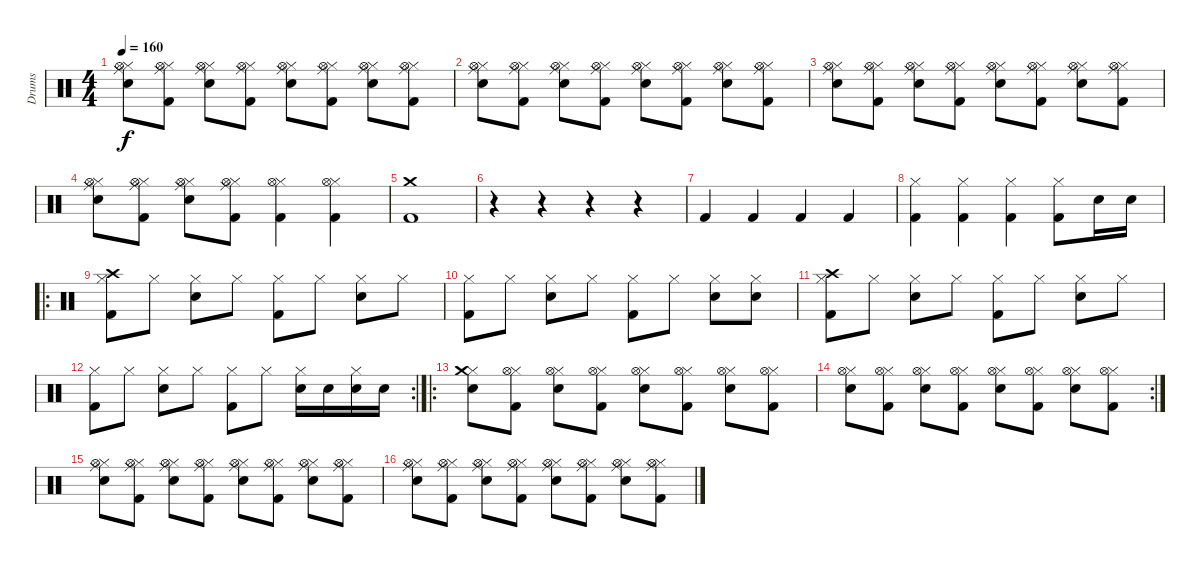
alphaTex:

\track ("Drums" "Drums") {instrument percussion}
\staff {score}
\articulation defaults
\ts (4 4)
\tempo 160
\clef neutral
\ks c
("Hi-Hat (closed)" "Electric Snare (hit)" "Hi-Hat (open)" "Ride (middle)").8{dy f} ("Hi-Hat (closed)" "Kick (hit) 2" "Hi-Hat (open)" "Ride (middle)").8 ("Hi-Hat (closed)" "Electric Snare (hit)" "Hi-Hat (open)" "Ride (middle)").8 ("Hi-Hat (closed)" "Kick (hit) 2" "Hi-Hat (open)" "Ride (middle)").8 ("Hi-Hat (closed)" "Electric Snare (hit)" "Hi-Hat (open)" "Ride (middle)").8 ("Hi-Hat (closed)" "Kick (hit) 2" "Hi-Hat (open)" "Ride (middle)").8 ("Hi-Hat (closed)" "Electric Snare (hit)" "Hi-Hat (open)" "Ride (middle)").8 ("Hi-Hat (closed)" "Kick (hit) 2" "Hi-Hat (open)" "Ride (middle)").8 |
("Hi-Hat (closed)" "Electric Snare (hit)" "Hi-Hat (open)" "Ride (middle)").8 ("Hi-Hat (closed)" "Kick (hit) 2" "Hi-Hat (open)" "Ride (middle)").8 ("Hi-Hat (closed)" "Electric Snare (hit)" "Hi-Hat (open)" "Ride (middle)").8 ("Hi-Hat (closed)" "Kick (hit) 2" "Hi-Hat (open)" "Ride (middle)").8 ("Hi-Hat (closed)" "Electric Snare (hit)" "Hi-Hat (open)" "Ride (middle)").8 ("Hi-Hat (closed)" "Kick (hit) 2" "Hi-Hat (open)" "Ride (middle)").8 ("Hi-Hat (closed)" "Electric Snare (hit)" "Hi-Hat (open)" "Ride (middle)").8 ("Hi-Hat (closed)" "Kick (hit) 2" "Hi-Hat (open)" "Ride (middle)").8 |
("Hi-Hat (closed)" "Electric Snare (hit)" "Hi-Hat (open)" "Ride (middle)").8 ("Hi-Hat (closed)" "Kick (hit) 2" "Hi-Hat (open)" "Ride (middle)").8 ("Hi-Hat (closed)" "Electric Snare (hit)" "Hi-Hat (open)" "Ride (middle)").8 ("Hi-Hat (closed)" "Kick (hit) 2" "Hi-Hat (open)" "Ride (middle)").8 ("Hi-Hat (closed)" "Electric Snare (hit)" "Hi-Hat (open)" "Ride (middle)").8 ("Hi-Hat (closed)" "Kick (hit) 2" "Hi-Hat (open)" "Ride (middle)").8 ("Hi-Hat (closed)" "Electric Snare (hit)" "Hi-Hat (open)" "Ride (middle)").8 ("Hi-Hat (closed)" "Kick (hit) 2" "Hi-Hat (open)" "Ride (middle)").8 |
("Hi-Hat (closed)" "Electric Snare (hit)" "Hi-Hat (open)" "Ride (middle)").8 ("Hi-Hat (closed)" "Kick (hit) 2" "Hi-Hat (open)" "Ride (middle)").8 ("Hi-Hat (closed)" "Electric Snare (hit)" "Hi-Hat (open)" "Ride (middle)").8 ("Hi-Hat (closed)" "Kick (hit) 2" "Hi-Hat (open)" "Ride (middle)").8 ("Hi-Hat (closed)" "Hi-Hat (open)" "Kick (hit) 2").4 ("Hi-Hat (closed)" "Hi-Hat (open)" "Kick (hit) 2").4 |
("Crash medium (hit)" "Kick (hit) 2").1 |
r.4 r.4 r.4 r.4 |
"Kick (hit) 2".4 "Kick (hit) 2".4 "Kick (hit) 2".4 "Kick (hit) 2".4 |
("Kick (hit) 2" "Hi-Hat (closed)").4 ("Kick (hit) 2" "Hi-Hat (closed)").4 ("Kick (hit) 2" "Hi-Hat (closed)").4 ("Kick (hit) 2" "Hi-Hat (closed)").8 "Electric Snare (hit)".16 "Electric Snare (hit)".16 |
\ro
("Hi-Hat (closed)" "Crash high (hit)" "Kick (hit) 2").8 "Hi-Hat (closed)".8 ("Hi-Hat (closed)" "Electric Snare (hit)").8 "Hi-Hat (closed)".8 ("Hi-Hat (closed)" "Kick (hit) 2").8 "Hi-Hat (closed)".8 ("Hi-Hat (closed)" "Electric Snare (hit)").8 "Hi-Hat (closed)".8 |
("Hi-Hat (closed)" "Kick (hit) 2").8 "Hi-Hat (closed)".8 ("Hi-Hat (closed)" "Electric Snare (hit)").8 "Hi-Hat (closed)".8 ("Hi-Hat (closed)" "Kick (hit) 2").8 "Hi-Hat (closed)".8 ("Hi-Hat (closed)" "Electric Snare (hit)").8 ("Hi-Hat (closed)" "Electric Snare (hit)").8 |
("Hi-Hat (closed)" "Crash high (hit)" "Kick (hit) 2").8 "Hi-Hat (closed)".8 ("Hi-Hat (closed)" "Electric Snare (hit)").8 "Hi-Hat (closed)".8 ("Hi-Hat (closed)" "Kick (hit) 2").8 "Hi-Hat (closed)".8 ("Hi-Hat (closed)" "Electric Snare (hit)").8 "Hi-Hat (closed)".8 |
\rc 2
("Hi-Hat (closed)" "Kick (hit) 2").8 "Hi-Hat (closed)".8 ("Hi-Hat (closed)" "Electric Snare (hit)").8 "Hi-Hat (closed)".8 ("Hi-Hat (closed)" "Kick (hit) 2").8 "Hi-Hat (closed)".8 ("Hi-Hat (closed)" "Electric Snare (hit)").16 "Electric Snare (hit)".16 ("Hi-Hat (closed)" "Electric Snare (hit)").16 "Electric Snare (hit)".16 |
\ro
("Hi-Hat (closed)" "Electric Snare (hit)" "Crash medium (hit)").8 ("Hi-Hat (closed)" "Kick (hit) 2" "Hi-Hat (open)").8 ("Hi-Hat (closed)" "Electric Snare (hit)" "Hi-Hat (open)").8 ("Hi-Hat (closed)" "Kick (hit) 2" "Hi-Hat (open)").8 ("Hi-Hat (closed)" "Electric Snare (hit)" "Hi-Hat (open)").8 ("Hi-Hat (closed)" "Kick (hit) 2" "Hi-Hat (open)").8 ("Hi-Hat (closed)" "Electric Snare (hit)" "Hi-Hat (open)").8 ("Hi-Hat (closed)" "Kick (hit) 2" "Hi-Hat (open)").8 |
\rc 2
("Hi-Hat (closed)" "Electric Snare (hit)" "Hi-Hat (open)").8 ("Hi-Hat (closed)" "Kick (hit) 2" "Hi-Hat (open)").8 ("Hi-Hat (closed)" "Electric Snare (hit)" "Hi-Hat (open)").8 ("Hi-Hat (closed)" "Kick (hit) 2" "Hi-Hat (open)").8 ("Hi-Hat (closed)" "Electric Snare (hit)" "Hi-Hat (open)").8 ("Hi-Hat (closed)" "Kick (hit) 2" "Hi-Hat (open)").8 ("Hi-Hat (closed)" "Electric Snare (hit)" "Hi-Hat (open)").8 ("Hi-Hat (closed)" "Kick (hit) 2" "Hi-Hat (open)").8 |
("Hi-Hat (closed)" "Electric Snare (hit)" "Hi-Hat (open)" "Ride (middle)").8 ("Hi-Hat (closed)" "Kick (hit) 2" "Hi-Hat (open)" "Ride (middle)").8 ("Hi-Hat (closed)" "Electric Snare (hit)" "Hi-Hat (open)" "Ride (middle)").8 ("Hi-Hat (closed)" "Kick (hit) 2" "Hi-Hat (open)" "Ride (middle)").8 ("Hi-Hat (closed)" "Electric Snare (hit)" "Hi-Hat (open)" "Ride (middle)").8 ("Hi-Hat (closed)" "Kick (hit) 2" "Hi-Hat (open)" "Ride (middle)").8 ("Hi-Hat (closed)" "Electric Snare (hit)" "Hi-Hat (open)" "Ride (middle)").8 ("Hi-Hat (closed)" "Kick (hit) 2" "Hi-Hat (open)" "Ride (middle)").8 |
("Hi-Hat (closed)" "Electric Snare (hit)" "Hi-Hat (open)" "Ride (middle)").8 ("Hi-Hat (closed)" "Kick (hit) 2" "Hi-Hat (open)" "Ride (middle)").8 ("Hi-Hat (closed)" "Electric Snare (hit)" "Hi-Hat (open)" "Ride (middle)").8 ("Hi-Hat (closed)" "Kick (hit) 2" "Hi-Hat (open)" "Ride (middle)").8 ("Hi-Hat (closed)" "Electric Snare (hit)" "Hi-Hat (open)" "Ride (middle)").8 ("Hi-Hat (closed)" "Kick (hit) 2" "Hi-Hat (open)" "Ride (middle)").8 ("Hi-Hat (closed)" "Electric Snare (hit)" "Hi-Hat (open)" "Ride (middle)").8 ("Hi-Hat (closed)" "Kick (hit) 2" "Hi-Hat (open)" "Ride (middle)").8
